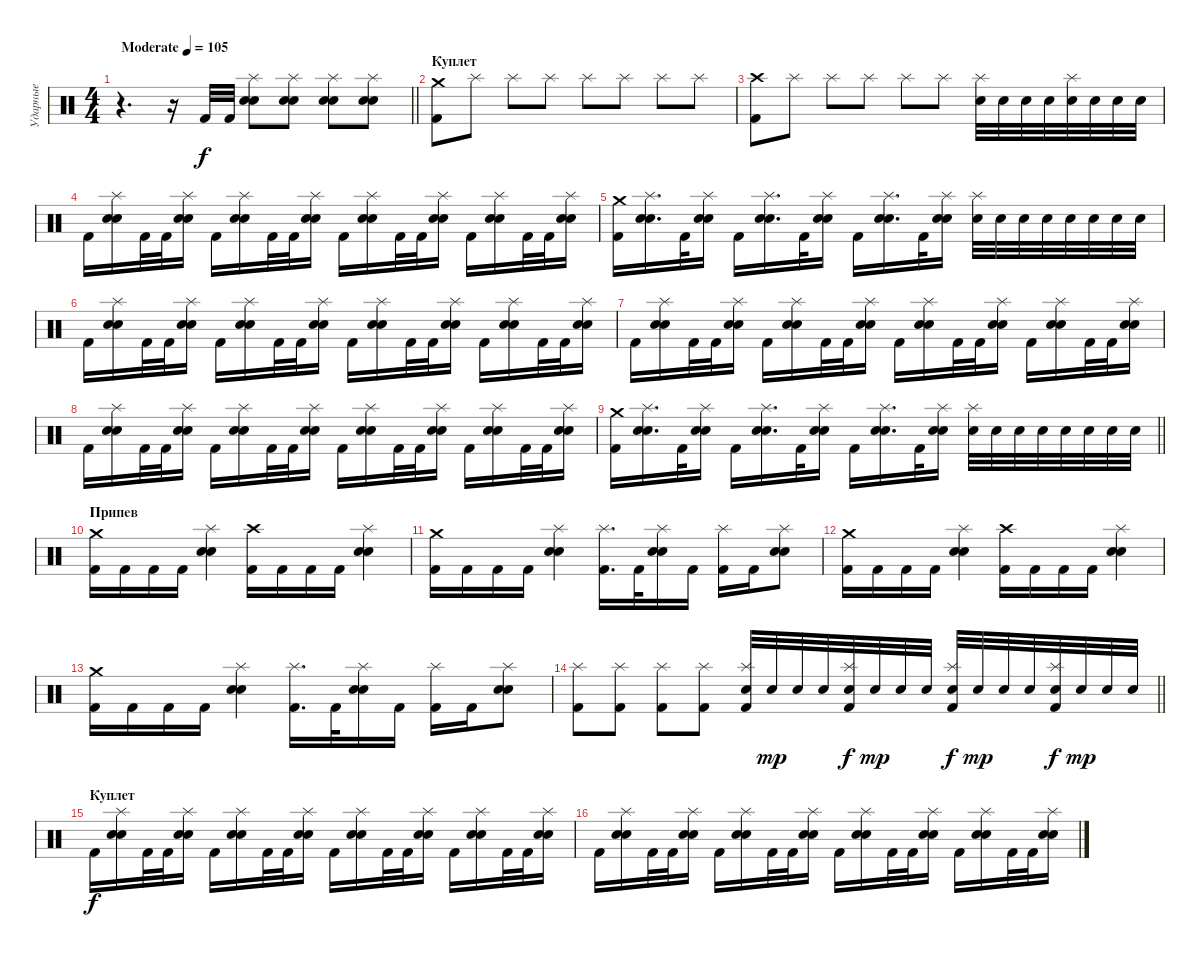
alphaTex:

\track ("Ударные" "Ударные") {instrument percussion}
\staff {score}
\articulation defaults
\ts (4 4)
\tempo (105 "Moderate")
\clef neutral
\barLineRight lightlight
\ks c
r.4{d dy f} r.16 "Kick (hit) 2".32 "Kick (hit) 2".32 ("Splash (hit)" "Electric Snare (hit)" "Snare (hit) 2").8 ("Splash (hit)" "Electric Snare (hit)" "Snare (hit) 2").8 ("Splash (hit)" "Electric Snare (hit)" "Snare (hit) 2").8 ("Splash (hit)" "Electric Snare (hit)" "Snare (hit) 2").8 |
\section ("" "Куплет")
("Crash medium (hit)" "Kick (hit) 2").8 "Splash (hit)".8 "Splash (hit)".8 "Splash (hit)".8 "Splash (hit)".8 "Splash (hit)".8 "Splash (hit)".8 "Splash (hit)".8 |
("Crash high (hit)" "Kick (hit) 2").8 "Splash (hit)".8 "Splash (hit)".8 "Splash (hit)".8 "Splash (hit)".8 "Splash (hit)".8 ("Splash (hit)" "Electric Snare (hit)").32 "Electric Snare (hit)".32 "Electric Snare (hit)".32 "Electric Snare (hit)".32 ("Splash (hit)" "Electric Snare (hit)").32 "Electric Snare (hit)".32 "Electric Snare (hit)".32 "Electric Snare (hit)".32 |
"Kick (hit) 2".16 ("Splash (hit)" "Electric Snare (hit)" "Snare (hit) 2").16 "Kick (hit) 2".32 "Kick (hit) 2".32 ("Splash (hit)" "Electric Snare (hit)" "Snare (hit) 2").16 "Kick (hit) 2".16 ("Splash (hit)" "Electric Snare (hit)" "Snare (hit) 2").16 "Kick (hit) 2".32 "Kick (hit) 2".32 ("Splash (hit)" "Electric Snare (hit)" "Snare (hit) 2").16 "Kick (hit) 2".16 ("Splash (hit)" "Electric Snare (hit)" "Snare (hit) 2").16 "Kick (hit) 2".32 "Kick (hit) 2".32 ("Splash (hit)" "Electric Snare (hit)" "Snare (hit) 2").16 "Kick (hit) 2".16 ("Splash (hit)" "Electric Snare (hit)" "Snare (hit) 2").16 "Kick (hit) 2".32 "Kick (hit) 2".32 ("Splash (hit)" "Electric Snare (hit)" "Snare (hit) 2").16 |
("Crash medium (hit)" "Kick (hit) 2").16 ("Splash (hit)" "Electric Snare (hit)" "Snare (hit) 2").16{d} "Kick (hit) 2".32 ("Splash (hit)" "Electric Snare (hit)" "Snare (hit) 2").16 "Kick (hit) 2".16 ("Splash (hit)" "Electric Snare (hit)" "Snare (hit) 2").16{d} "Kick (hit) 2".32 ("Splash (hit)" "Electric Snare (hit)" "Snare (hit) 2").16 "Kick (hit) 2".16 ("Splash (hit)" "Electric Snare (hit)" "Snare (hit) 2").16{d} "Kick (hit) 2".32 ("Splash (hit)" "Electric Snare (hit)" "Snare (hit) 2").16 ("Splash (hit)" "Electric Snare (hit)").32 "Electric Snare (hit)".32 "Electric Snare (hit)".32 "Electric Snare (hit)".32 "Electric Snare (hit)".32 "Electric Snare (hit)".32 "Electric Snare (hit)".32 "Electric Snare (hit)".32 |
"Kick (hit) 2".16 ("Splash (hit)" "Electric Snare (hit)" "Snare (hit) 2").16 "Kick (hit) 2".32 "Kick (hit) 2".32 ("Splash (hit)" "Electric Snare (hit)" "Snare (hit) 2").16 "Kick (hit) 2".16 ("Splash (hit)" "Electric Snare (hit)" "Snare (hit) 2").16 "Kick (hit) 2".32 "Kick (hit) 2".32 ("Splash (hit)" "Electric Snare (hit)" "Snare (hit) 2").16 "Kick (hit) 2".16 ("Splash (hit)" "Electric Snare (hit)" "Snare (hit) 2").16 "Kick (hit) 2".32 "Kick (hit) 2".32 ("Splash (hit)" "Electric Snare (hit)" "Snare (hit) 2").16 "Kick (hit) 2".16 ("Splash (hit)" "Electric Snare (hit)" "Snare (hit) 2").16 "Kick (hit) 2".32 "Kick (hit) 2".32 ("Splash (hit)" "Electric Snare (hit)" "Snare (hit) 2").16 |
"Kick (hit) 2".16 ("Splash (hit)" "Electric Snare (hit)" "Snare (hit) 2").16 "Kick (hit) 2".32 "Kick (hit) 2".32 ("Splash (hit)" "Electric Snare (hit)" "Snare (hit) 2").16 "Kick (hit) 2".16 ("Splash (hit)" "Electric Snare (hit)" "Snare (hit) 2").16 "Kick (hit) 2".32 "Kick (hit) 2".32 ("Splash (hit)" "Electric Snare (hit)" "Snare (hit) 2").16 "Kick (hit) 2".16 ("Splash (hit)" "Electric Snare (hit)" "Snare (hit) 2").16 "Kick (hit) 2".32 "Kick (hit) 2".32 ("Splash (hit)" "Electric Snare (hit)" "Snare (hit) 2").16 "Kick (hit) 2".16 ("Splash (hit)" "Electric Snare (hit)" "Snare (hit) 2").16 "Kick (hit) 2".32 "Kick (hit) 2".32 ("Splash (hit)" "Electric Snare (hit)" "Snare (hit) 2").16 |
"Kick (hit) 2".16 ("Splash (hit)" "Electric Snare (hit)" "Snare (hit) 2").16 "Kick (hit) 2".32 "Kick (hit) 2".32 ("Splash (hit)" "Electric Snare (hit)" "Snare (hit) 2").16 "Kick (hit) 2".16 ("Splash (hit)" "Electric Snare (hit)" "Snare (hit) 2").16 "Kick (hit) 2".32 "Kick (hit) 2".32 ("Splash (hit)" "Electric Snare (hit)" "Snare (hit) 2").16 "Kick (hit) 2".16 ("Splash (hit)" "Electric Snare (hit)" "Snare (hit) 2").16 "Kick (hit) 2".32 "Kick (hit) 2".32 ("Splash (hit)" "Electric Snare (hit)" "Snare (hit) 2").16 "Kick (hit) 2".16 ("Splash (hit)" "Electric Snare (hit)" "Snare (hit) 2").16 "Kick (hit) 2".32 "Kick (hit) 2".32 ("Splash (hit)" "Electric Snare (hit)" "Snare (hit) 2").16 |
\barLineRight lightlight
("Crash medium (hit)" "Kick (hit) 2").16 ("Splash (hit)" "Electric Snare (hit)" "Snare (hit) 2").16{d} "Kick (hit) 2".32 ("Splash (hit)" "Electric Snare (hit)" "Snare (hit) 2").16 "Kick (hit) 2".16 ("Splash (hit)" "Electric Snare (hit)" "Snare (hit) 2").16{d} "Kick (hit) 2".32 ("Splash (hit)" "Electric Snare (hit)" "Snare (hit) 2").16 "Kick (hit) 2".16 ("Splash (hit)" "Electric Snare (hit)" "Snare (hit) 2").16{d} "Kick (hit) 2".32 ("Splash (hit)" "Electric Snare (hit)" "Snare (hit) 2").16 ("Splash (hit)" "Electric Snare (hit)").32 "Electric Snare (hit)".32 "Electric Snare (hit)".32 "Electric Snare (hit)".32 "Electric Snare (hit)".32 "Electric Snare (hit)".32 "Electric Snare (hit)".32 "Electric Snare (hit)".32 |
\section ("" "Припев")
("Crash medium (hit)" "Kick (hit) 2").16 "Kick (hit) 2".16 "Kick (hit) 2".16 "Kick (hit) 2".16 ("Splash (hit)" "Electric Snare (hit)" "Snare (hit) 2").4 ("Crash high (hit)" "Kick (hit) 2").16 "Kick (hit) 2".16 "Kick (hit) 2".16 "Kick (hit) 2".16 ("Splash (hit)" "Electric Snare (hit)" "Snare (hit) 2").4 |
("Crash medium (hit)" "Kick (hit) 2").16 "Kick (hit) 2".16 "Kick (hit) 2".16 "Kick (hit) 2".16 ("Splash (hit)" "Electric Snare (hit)" "Snare (hit) 2").4 ("Splash (hit)" "Kick (hit) 2").16{d} "Kick (hit) 2".32 ("Splash (hit)" "Electric Snare (hit)" "Snare (hit) 2").16 "Kick (hit) 2".16 ("Splash (hit)" "Kick (hit) 2").16 "Kick (hit) 2".16 ("Splash (hit)" "Electric Snare (hit)" "Snare (hit) 2").8 |
("Crash medium (hit)" "Kick (hit) 2").16 "Kick (hit) 2".16 "Kick (hit) 2".16 "Kick (hit) 2".16 ("Splash (hit)" "Electric Snare (hit)" "Snare (hit) 2").4 ("Crash high (hit)" "Kick (hit) 2").16 "Kick (hit) 2".16 "Kick (hit) 2".16 "Kick (hit) 2".16 ("Splash (hit)" "Electric Snare (hit)" "Snare (hit) 2").4 |
("Crash medium (hit)" "Kick (hit) 2").16 "Kick (hit) 2".16 "Kick (hit) 2".16 "Kick (hit) 2".16 ("Splash (hit)" "Electric Snare (hit)" "Snare (hit) 2").4 ("Splash (hit)" "Kick (hit) 2").16{d} "Kick (hit) 2".32 ("Splash (hit)" "Electric Snare (hit)" "Snare (hit) 2").16 "Kick (hit) 2".16 ("Splash (hit)" "Kick (hit) 2").16 "Kick (hit) 2".16 ("Splash (hit)" "Electric Snare (hit)" "Snare (hit) 2").8 |
\barLineRight lightlight
("Splash (hit)" "Kick (hit) 2").8 ("Splash (hit)" "Kick (hit) 2").8 ("Splash (hit)" "Kick (hit) 2").8 ("Splash (hit)" "Kick (hit) 2").8 ("Splash (hit)" "Electric Snare (hit)" "Kick (hit) 2").32 "Electric Snare (hit)".32{dy mp} "Electric Snare (hit)".32 "Electric Snare (hit)".32 ("Splash (hit)" "Electric Snare (hit)" "Kick (hit) 2").32{dy f} "Electric Snare (hit)".32{dy mp} "Electric Snare (hit)".32 "Electric Snare (hit)".32 ("Splash (hit)" "Electric Snare (hit)" "Kick (hit) 2").32{dy f} "Electric Snare (hit)".32{dy mp} "Electric Snare (hit)".32 "Electric Snare (hit)".32 ("Splash (hit)" "Electric Snare (hit)" "Kick (hit) 2").32{dy f} "Electric Snare (hit)".32{dy mp} "Electric Snare (hit)".32 "Electric Snare (hit)".32 |
\section ("" "Куплет")
"Kick (hit) 2".16{dy f} ("Splash (hit)" "Electric Snare (hit)" "Snare (hit) 2").16 "Kick (hit) 2".32 "Kick (hit) 2".32 ("Splash (hit)" "Electric Snare (hit)" "Snare (hit) 2").16 "Kick (hit) 2".16 ("Splash (hit)" "Electric Snare (hit)" "Snare (hit) 2").16 "Kick (hit) 2".32 "Kick (hit) 2".32 ("Splash (hit)" "Electric Snare (hit)" "Snare (hit) 2").16 "Kick (hit) 2".16 ("Splash (hit)" "Electric Snare (hit)" "Snare (hit) 2").16 "Kick (hit) 2".32 "Kick (hit) 2".32 ("Splash (hit)" "Electric Snare (hit)" "Snare (hit) 2").16 "Kick (hit) 2".16 ("Splash (hit)" "Electric Snare (hit)" "Snare (hit) 2").16 "Kick (hit) 2".32 "Kick (hit) 2".32 ("Splash (hit)" "Electric Snare (hit)" "Snare (hit) 2").16 |
"Kick (hit) 2".16 ("Splash (hit)" "Electric Snare (hit)" "Snare (hit) 2").16 "Kick (hit) 2".32 "Kick (hit) 2".32 ("Splash (hit)" "Electric Snare (hit)" "Snare (hit) 2").16 "Kick (hit) 2".16 ("Splash (hit)" "Electric Snare (hit)" "Snare (hit) 2").16 "Kick (hit) 2".32 "Kick (hit) 2".32 ("Splash (hit)" "Electric Snare (hit)" "Snare (hit) 2").16 "Kick (hit) 2".16 ("Splash (hit)" "Electric Snare (hit)" "Snare (hit) 2").16 "Kick (hit) 2".32 "Kick (hit) 2".32 ("Splash (hit)" "Electric Snare (hit)" "Snare (hit) 2").16 "Kick (hit) 2".16 ("Splash (hit)" "Electric Snare (hit)" "Snare (hit) 2").16 "Kick (hit) 2".32 "Kick (hit) 2".32 ("Splash (hit)" "Electric Snare (hit)" "Snare (hit) 2").16
